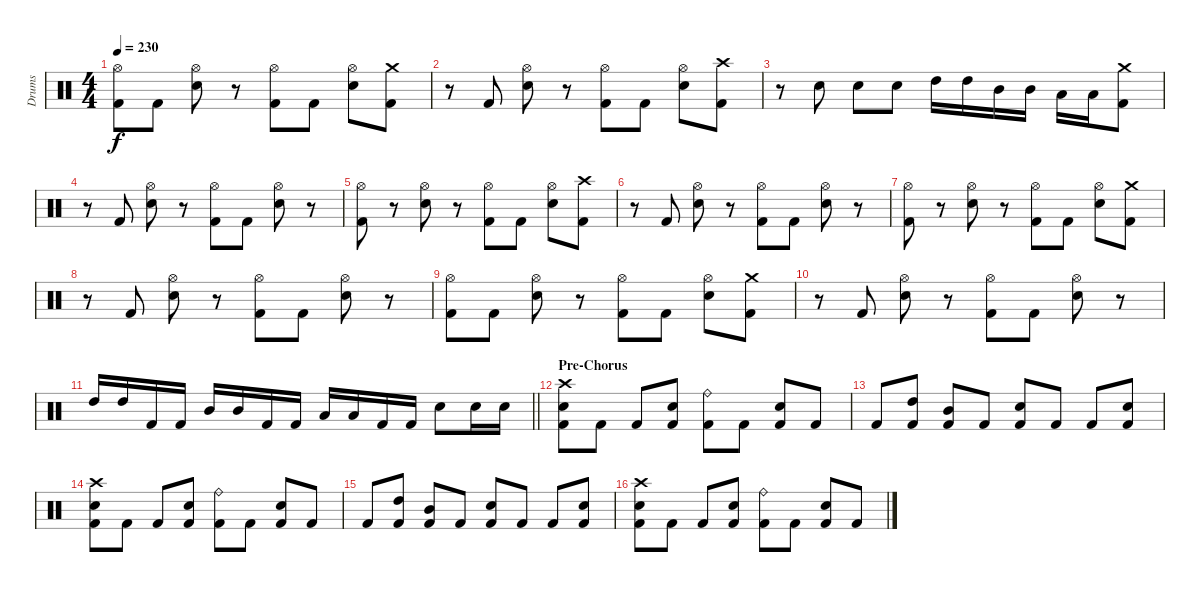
\track ("Drums" "Drums") {instrument percussion}
\staff {score}
\articulation defaults
\ts (4 4)
\tempo 230
\clef neutral
\ks c
("Hi-Hat (open)" "Kick (hit) 2").8{dy f} "Kick (hit) 2".8 ("Hi-Hat (open)" "Electric Snare (hit)").8 r.8 ("Hi-Hat (open)" "Kick (hit) 2").8 "Kick (hit) 2".8 ("Hi-Hat (open)" "Electric Snare (hit)").8 ("Crash medium (hit)" "Kick (hit) 2").8 |
r.8 "Kick (hit) 2".8 ("Hi-Hat (open)" "Electric Snare (hit)").8 r.8 ("Hi-Hat (open)" "Kick (hit) 2").8 "Kick (hit) 2".8 ("Hi-Hat (open)" "Electric Snare (hit)").8 ("Crash high (hit)" "Kick (hit) 2").8 |
r.8 "Electric Snare (hit)".8 "Electric Snare (hit)".8 "Electric Snare (hit)".8 "High Tom (hit)".16 "High Tom (hit)".16 "Mid Tom (hit)".16 "Mid Tom (hit)".16 "Low Tom (hit)".16 "Low Tom (hit)".16 ("Crash medium (hit)" "Kick (hit) 2").8 |
r.8 "Kick (hit) 2".8 ("Hi-Hat (open)" "Electric Snare (hit)").8 r.8 ("Hi-Hat (open)" "Kick (hit) 2").8 "Kick (hit) 2".8 ("Hi-Hat (open)" "Electric Snare (hit)").8 r.8 |
("Hi-Hat (open)" "Kick (hit) 2").8 r.8 ("Hi-Hat (open)" "Electric Snare (hit)").8 r.8 ("Hi-Hat (open)" "Kick (hit) 2").8 "Kick (hit) 2".8 ("Hi-Hat (open)" "Electric Snare (hit)").8 ("Crash high (hit)" "Kick (hit) 2").8 |
r.8 "Kick (hit) 2".8 ("Hi-Hat (open)" "Electric Snare (hit)").8 r.8 ("Hi-Hat (open)" "Kick (hit) 2").8 "Kick (hit) 2".8 ("Hi-Hat (open)" "Electric Snare (hit)").8 r.8 |
("Hi-Hat (open)" "Kick (hit) 2").8 r.8 ("Hi-Hat (open)" "Electric Snare (hit)").8 r.8 ("Hi-Hat (open)" "Kick (hit) 2").8 "Kick (hit) 2".8 ("Hi-Hat (open)" "Electric Snare (hit)").8 ("Crash medium (hit)" "Kick (hit) 2").8 |
r.8 "Kick (hit) 2".8 ("Hi-Hat (open)" "Electric Snare (hit)").8 r.8 ("Hi-Hat (open)" "Kick (hit) 2").8 "Kick (hit) 2".8 ("Hi-Hat (open)" "Electric Snare (hit)").8 r.8 |
("Hi-Hat (open)" "Kick (hit) 2").8 "Kick (hit) 2".8 ("Hi-Hat (open)" "Electric Snare (hit)").8 r.8 ("Hi-Hat (open)" "Kick (hit) 2").8 "Kick (hit) 2".8 ("Hi-Hat (open)" "Electric Snare (hit)").8 ("Crash medium (hit)" "Kick (hit) 2").8 |
r.8 "Kick (hit) 2".8 ("Hi-Hat (open)" "Electric Snare (hit)").8 r.8 ("Hi-Hat (open)" "Kick (hit) 2").8 "Kick (hit) 2".8 ("Hi-Hat (open)" "Electric Snare (hit)").8 r.8 |
\barLineRight lightlight "High Tom (hit)".16 "High Tom (hit)".16 "Kick (hit) 2".16 "Kick (hit) 2".16 "Mid Tom (hit)".16 "Mid Tom (hit)".16 "Kick (hit) 2".16 "Kick (hit) 2".16 "Low Tom (hit)".16 "Low Tom (hit)".16 "Kick (hit) 2".16 "Kick (hit) 2".16 "Electric Snare (hit)".8 "Electric Snare (hit)".16 "Electric Snare (hit)".16
|
\section ("" "Pre-Chorus")
("Crash high (hit)" "Electric Snare (hit)" "Kick (hit) 2").8 "Kick (hit) 2".8 "Kick (hit) 2".8 ("Electric Snare (hit)" "Kick (hit) 2").8 ("Ride (bell)" "Kick (hit) 2").8 "Kick (hit) 2".8 ("Electric Snare (hit)" "Kick (hit) 2").8 "Kick (hit) 2".8 |
"Kick (hit) 2".8 ("High Tom (hit)" "Kick (hit) 2").8 ("Mid Tom (hit)" "Kick (hit) 2").8 "Kick (hit) 2".8 ("Electric Snare (hit)" "Kick (hit) 2").8 "Kick (hit) 2".8 "Kick (hit) 2".8 ("Electric Snare (hit)" "Kick (hit) 2").8 |
("Crash high (hit)" "Electric Snare (hit)" "Kick (hit) 2").8 "Kick (hit) 2".8 "Kick (hit) 2".8 ("Electric Snare (hit)" "Kick (hit) 2").8 ("Ride (bell)" "Kick (hit) 2").8 "Kick (hit) 2".8 ("Electric Snare (hit)" "Kick (hit) 2").8 "Kick (hit) 2".8 |
"Kick (hit) 2".8 ("High Tom (hit)" "Kick (hit) 2").8 ("Mid Tom (hit)" "Kick (hit) 2").8 "Kick (hit) 2".8 ("Electric Snare (hit)" "Kick (hit) 2").8 "Kick (hit) 2".8 "Kick (hit) 2".8 ("Electric Snare (hit)" "Kick (hit) 2").8 |
("Crash high (hit)" "Electric Snare (hit)" "Kick (hit) 2").8 "Kick (hit) 2".8 "Kick (hit) 2".8 ("Electric Snare (hit)" "Kick (hit) 2").8 ("Ride (bell)" "Kick (hit) 2").8 "Kick (hit) 2".8 ("Electric Snare (hit)" "Kick (hit) 2").8 "Kick (hit) 2".8
